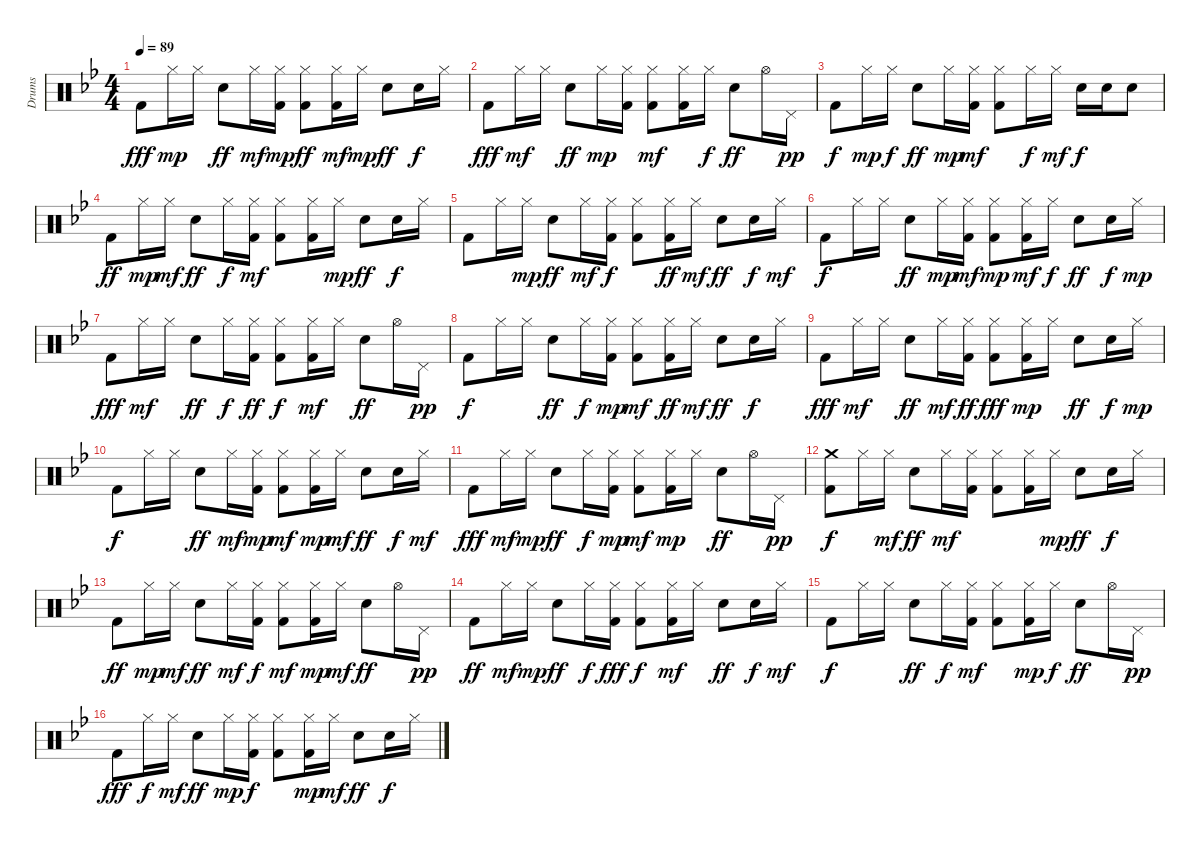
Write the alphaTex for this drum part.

\track ("Drums" "Drums") {instrument percussion}
\staff {score}
\articulation defaults
\ts (4 4)
\tempo 89
\clef neutral
\ks bb "Kick (hit) 2".8{dy fff} "Hi-Hat (closed)".16{dy mp} "Hi-Hat (closed)".16 "Electric Snare (hit)".8{dy ff} "Hi-Hat (closed)".16{dy mf}
("Kick (hit) 2" "Hi-Hat (closed)").16{dy mp} ("Kick (hit) 2" "Hi-Hat (closed)").8{dy ff} ("Kick (hit) 2" "Hi-Hat (closed)").16{dy mf} "Hi-Hat (closed)".16{dy mp} "Electric Snare (hit)".8{dy ff} "Hand Clap (hit)".16{dy f} "Hi-Hat (closed)".16 |
"Kick (hit) 2".8{dy fff} "Hi-Hat (closed)".16{dy mf} "Hi-Hat (closed)".16 "Electric Snare (hit)".8{dy ff} "Hi-Hat (closed)".16{dy mp} ("Kick (hit) 2" "Hi-Hat (closed)").16 ("Kick (hit) 2" "Hi-Hat (closed)").8{dy mf} ("Kick (hit) 2" "Hi-Hat (closed)").16 "Hi-Hat (closed)".16{dy f} "Electric Snare (hit)".8{dy ff} "Hi-Hat (open)".16 "Pedal Hi-Hat (hit)".16{dy pp} |
"Kick (hit) 2".8{dy f} "Hi-Hat (closed)".16{dy mp} "Hi-Hat (closed)".16{dy f} "Electric Snare (hit)".8{dy ff} "Hi-Hat (closed)".16{dy mp} ("Kick (hit) 2" "Hi-Hat (closed)").16{dy mf} ("Kick (hit) 2" "Hi-Hat (closed)").8 "Hi-Hat (closed)".16{dy f} "Hi-Hat (closed)".16{dy mf} "Electric Snare (hit)".16{dy f} "Electric Snare (hit)".16 "Electric Snare (hit)".8 |
"Kick (hit) 2".8{dy ff} "Hi-Hat (closed)".16{dy mp} "Hi-Hat (closed)".16{dy mf} "Electric Snare (hit)".8{dy ff} "Hi-Hat (closed)".16{dy f} ("Kick (hit) 2" "Hi-Hat (closed)").16{dy mf} ("Kick (hit) 2" "Hi-Hat (closed)").8 ("Kick (hit) 2" "Hi-Hat (closed)").16 "Hi-Hat (closed)".16{dy mp} "Electric Snare (hit)".8{dy ff} "Hand Clap (hit)".16{dy f} "Hi-Hat (closed)".16 |
"Kick (hit) 2".8 "Hi-Hat (closed)".16 "Hi-Hat (closed)".16{dy mp} "Electric Snare (hit)".8{dy ff} "Hi-Hat (closed)".16{dy mf} ("Kick (hit) 2" "Hi-Hat (closed)").16{dy f} ("Kick (hit) 2" "Hi-Hat (closed)").8 ("Kick (hit) 2" "Hi-Hat (closed)").16{dy ff} "Hi-Hat (closed)".16{dy mf} "Electric Snare (hit)".8{dy ff} "Hand Clap (hit)".16{dy f} "Hi-Hat (closed)".16{dy mf} |
"Kick (hit) 2".8{dy f} "Hi-Hat (closed)".16 "Hi-Hat (closed)".16 "Electric Snare (hit)".8{dy ff} "Hi-Hat (closed)".16{dy mp} ("Kick (hit) 2" "Hi-Hat (closed)").16{dy mf} ("Kick (hit) 2" "Hi-Hat (closed)").8{dy mp} ("Kick (hit) 2" "Hi-Hat (closed)").16{dy mf} "Hi-Hat (closed)".16{dy f} "Electric Snare (hit)".8{dy ff} "Hand Clap (hit)".16{dy f} "Hi-Hat (closed)".16{dy mp} |
"Kick (hit) 2".8{dy fff} "Hi-Hat (closed)".16{dy mf} "Hi-Hat (closed)".16 "Electric Snare (hit)".8{dy ff} "Hi-Hat (closed)".16{dy f} ("Kick (hit) 2" "Hi-Hat (closed)").16{dy ff} ("Kick (hit) 2" "Hi-Hat (closed)").8{dy f} ("Kick (hit) 2" "Hi-Hat (closed)").16{dy mf} "Hi-Hat (closed)".16 "Electric Snare (hit)".8{dy ff} "Hi-Hat (open)".16 "Pedal Hi-Hat (hit)".16{dy pp} |
"Kick (hit) 2".8{dy f} "Hi-Hat (closed)".16 "Hi-Hat (closed)".16 "Electric Snare (hit)".8{dy ff} "Hi-Hat (closed)".16{dy f} ("Kick (hit) 2" "Hi-Hat (closed)").16{dy mp} ("Kick (hit) 2" "Hi-Hat (closed)").8{dy mf} ("Kick (hit) 2" "Hi-Hat (closed)").16{dy ff} "Hi-Hat (closed)".16{dy mf} "Electric Snare (hit)".8{dy ff} "Hand Clap (hit)".16{dy f} "Hi-Hat (closed)".16 |
"Kick (hit) 2".8{dy fff} "Hi-Hat (closed)".16{dy mf} "Hi-Hat (closed)".16 "Electric Snare (hit)".8{dy ff} "Hi-Hat (closed)".16{dy mf} ("Kick (hit) 2" "Hi-Hat (closed)").16{dy ff} ("Kick (hit) 2" "Hi-Hat (closed)").8{dy fff} ("Kick (hit) 2" "Hi-Hat (closed)").16{dy mp} "Hi-Hat (closed)".16 "Electric Snare (hit)".8{dy ff} "Hand Clap (hit)".16{dy f} "Hi-Hat (closed)".16{dy mp} |
"Kick (hit) 2".8{dy f} "Hi-Hat (closed)".16 "Hi-Hat (closed)".16 "Electric Snare (hit)".8{dy ff} "Hi-Hat (closed)".16{dy mf} ("Kick (hit) 2" "Hi-Hat (closed)").16{dy mp} ("Kick (hit) 2" "Hi-Hat (closed)").8{dy mf} ("Kick (hit) 2" "Hi-Hat (closed)").16{dy mp} "Hi-Hat (closed)".16{dy mf} "Electric Snare (hit)".8{dy ff} "Hand Clap (hit)".16{dy f} "Hi-Hat (closed)".16{dy mf} |
"Kick (hit) 2".8{dy fff} "Hi-Hat (closed)".16{dy mf} "Hi-Hat (closed)".16{dy mp} "Electric Snare (hit)".8{dy ff} "Hi-Hat (closed)".16{dy f} ("Kick (hit) 2" "Hi-Hat (closed)").16{dy mp} ("Kick (hit) 2" "Hi-Hat (closed)").8{dy mf} ("Kick (hit) 2" "Hi-Hat (closed)").16{dy mp} "Hi-Hat (closed)".16 "Electric Snare (hit)".8{dy ff} "Hi-Hat (open)".16 "Pedal Hi-Hat (hit)".16{dy pp} |
("Kick (hit) 2" "Crash medium (hit)").8{dy f} "Hi-Hat (closed)".16 "Hi-Hat (closed)".16{dy mf} "Electric Snare (hit)".8{dy ff} "Hi-Hat (closed)".16{dy mf} ("Kick (hit) 2" "Hi-Hat (closed)").16 ("Kick (hit) 2" "Hi-Hat (closed)").8 ("Kick (hit) 2" "Hi-Hat (closed)").16 "Hi-Hat (closed)".16{dy mp} "Electric Snare (hit)".8{dy ff} "Hand Clap (hit)".16{dy f} "Hi-Hat (closed)".16 |
"Kick (hit) 2".8{dy ff} "Hi-Hat (closed)".16{dy mp} "Hi-Hat (closed)".16{dy mf} "Electric Snare (hit)".8{dy ff} "Hi-Hat (closed)".16{dy mf} ("Kick (hit) 2" "Hi-Hat (closed)").16{dy f} ("Kick (hit) 2" "Hi-Hat (closed)").8{dy mf} ("Kick (hit) 2" "Hi-Hat (closed)").16{dy mp} "Hi-Hat (closed)".16{dy mf} "Electric Snare (hit)".8{dy ff} "Hi-Hat (open)".16 "Pedal Hi-Hat (hit)".16{dy pp} |
"Kick (hit) 2".8{dy ff} "Hi-Hat (closed)".16{dy mf} "Hi-Hat (closed)".16{dy mp} "Electric Snare (hit)".8{dy ff} "Hi-Hat (closed)".16{dy f} ("Kick (hit) 2" "Hi-Hat (closed)").16{dy fff} ("Kick (hit) 2" "Hi-Hat (closed)").8{dy f} ("Kick (hit) 2" "Hi-Hat (closed)").16{dy mf} "Hi-Hat (closed)".16 "Electric Snare (hit)".8{dy ff} "Hand Clap (hit)".16{dy f} "Hi-Hat (closed)".16{dy mf} |
"Kick (hit) 2".8{dy f} "Hi-Hat (closed)".16 "Hi-Hat (closed)".16 "Electric Snare (hit)".8{dy ff} "Hi-Hat (closed)".16{dy f} ("Kick (hit) 2" "Hi-Hat (closed)").16{dy mf} ("Kick (hit) 2" "Hi-Hat (closed)").8 ("Kick (hit) 2" "Hi-Hat (closed)").16{dy mp} "Hi-Hat (closed)".16{dy f} "Electric Snare (hit)".8{dy ff} "Hi-Hat (open)".16 "Pedal Hi-Hat (hit)".16{dy pp} |
"Kick (hit) 2".8{dy fff} "Hi-Hat (closed)".16{dy f} "Hi-Hat (closed)".16{dy mf} "Electric Snare (hit)".8{dy ff} "Hi-Hat (closed)".16{dy mp} ("Kick (hit) 2" "Hi-Hat (closed)").16{dy f} ("Kick (hit) 2" "Hi-Hat (closed)").8 ("Kick (hit) 2" "Hi-Hat (closed)").16{dy mp} "Hi-Hat (closed)".16{dy mf} "Electric Snare (hit)".8{dy ff} "Hand Clap (hit)".16{dy f} "Hi-Hat (closed)".16
